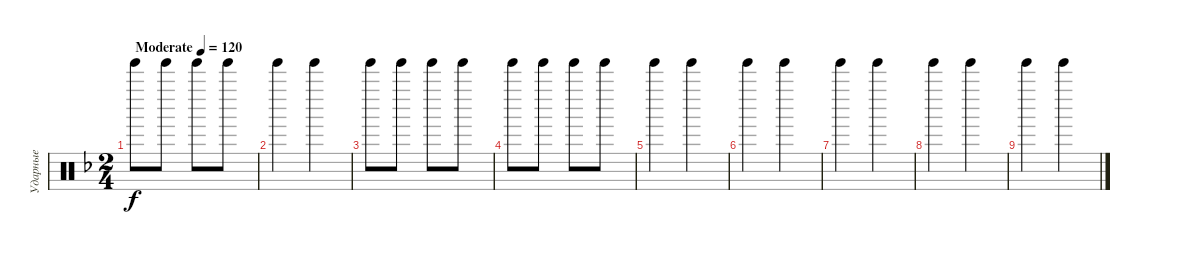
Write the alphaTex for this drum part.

\track ("Ударные" "Ударные") {instrument percussion}
\staff {score}
\articulation defaults
\ts (2 4)
\tempo (120 "Moderate")
\clef neutral
\ks f "Tinkle Bell (hit)".8{dy f} "Tinkle Bell (hit)".8 "Tinkle Bell (hit)".8 "Tinkle Bell (hit)".8
|
"Tinkle Bell (hit)".4 "Tinkle Bell (hit)".4 |
"Tinkle Bell (hit)".8 "Tinkle Bell (hit)".8 "Tinkle Bell (hit)".8 "Tinkle Bell (hit)".8 |
"Tinkle Bell (hit)".8 "Tinkle Bell (hit)".8 "Tinkle Bell (hit)".8 "Tinkle Bell (hit)".8 |
"Tinkle Bell (hit)".4 "Tinkle Bell (hit)".4 |
"Tinkle Bell (hit)".4 "Tinkle Bell (hit)".4 |
"Tinkle Bell (hit)".4 "Tinkle Bell (hit)".4 |
"Tinkle Bell (hit)".4 "Tinkle Bell (hit)".4 |
"Tinkle Bell (hit)".4 "Tinkle Bell (hit)".4
